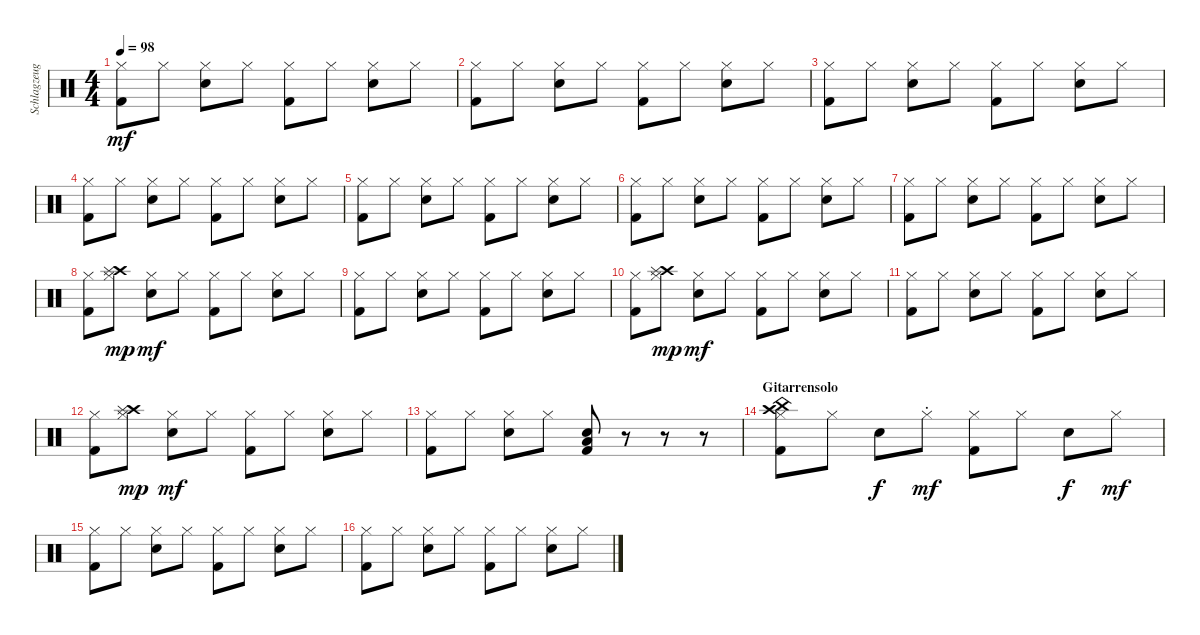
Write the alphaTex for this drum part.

\track ("Schlagzeug" "Schlagzeug") {instrument percussion}
\staff {score}
\articulation defaults
\ts (4 4)
\tempo 98
\clef neutral
\ks c
("Hi-Hat (closed)" "Kick (hit) 2").8{dy mf} "Hi-Hat (closed)".8 ("Hi-Hat (closed)" "Electric Snare (hit)").8 "Hi-Hat (closed)".8 ("Hi-Hat (closed)" "Kick (hit) 2").8 "Hi-Hat (closed)".8 ("Hi-Hat (closed)" "Electric Snare (hit)").8 "Hi-Hat (closed)".8 |
("Hi-Hat (closed)" "Kick (hit) 2").8 "Hi-Hat (closed)".8 ("Hi-Hat (closed)" "Electric Snare (hit)").8 "Hi-Hat (closed)".8 ("Hi-Hat (closed)" "Kick (hit) 2").8 "Hi-Hat (closed)".8 ("Hi-Hat (closed)" "Electric Snare (hit)").8 "Hi-Hat (closed)".8 |
("Hi-Hat (closed)" "Kick (hit) 2").8 "Hi-Hat (closed)".8 ("Hi-Hat (closed)" "Electric Snare (hit)").8 "Hi-Hat (closed)".8 ("Hi-Hat (closed)" "Kick (hit) 2").8 "Hi-Hat (closed)".8 ("Hi-Hat (closed)" "Electric Snare (hit)").8 "Hi-Hat (closed)".8 |
("Hi-Hat (closed)" "Kick (hit) 2").8 "Hi-Hat (closed)".8 ("Hi-Hat (closed)" "Electric Snare (hit)").8 "Hi-Hat (closed)".8 ("Hi-Hat (closed)" "Kick (hit) 2").8 "Hi-Hat (closed)".8 ("Hi-Hat (closed)" "Electric Snare (hit)").8 "Hi-Hat (closed)".8 |
("Hi-Hat (closed)" "Kick (hit) 2").8 "Hi-Hat (closed)".8 ("Hi-Hat (closed)" "Electric Snare (hit)").8 "Hi-Hat (closed)".8 ("Hi-Hat (closed)" "Kick (hit) 2").8 "Hi-Hat (closed)".8 ("Hi-Hat (closed)" "Electric Snare (hit)").8 "Hi-Hat (closed)".8 |
("Hi-Hat (closed)" "Kick (hit) 2").8 "Hi-Hat (closed)".8 ("Hi-Hat (closed)" "Electric Snare (hit)").8 "Hi-Hat (closed)".8 ("Hi-Hat (closed)" "Kick (hit) 2").8 "Hi-Hat (closed)".8 ("Hi-Hat (closed)" "Electric Snare (hit)").8 "Hi-Hat (closed)".8 |
("Hi-Hat (closed)" "Kick (hit) 2").8 "Hi-Hat (closed)".8 ("Hi-Hat (closed)" "Electric Snare (hit)").8 "Hi-Hat (closed)".8 ("Hi-Hat (closed)" "Kick (hit) 2").8 "Hi-Hat (closed)".8 ("Hi-Hat (closed)" "Electric Snare (hit)").8 "Hi-Hat (closed)".8 |
("Hi-Hat (closed)" "Kick (hit) 2").8 ("Crash high (hit)" "Hi-Hat (closed)" "Splash (hit)").8{dy mp} ("Hi-Hat (closed)" "Electric Snare (hit)").8{dy mf} "Hi-Hat (closed)".8 ("Hi-Hat (closed)" "Kick (hit) 2").8 "Hi-Hat (closed)".8 ("Hi-Hat (closed)" "Electric Snare (hit)").8 "Hi-Hat (closed)".8 |
("Hi-Hat (closed)" "Kick (hit) 2").8 "Hi-Hat (closed)".8 ("Hi-Hat (closed)" "Electric Snare (hit)").8 "Hi-Hat (closed)".8 ("Hi-Hat (closed)" "Kick (hit) 2").8 "Hi-Hat (closed)".8 ("Hi-Hat (closed)" "Electric Snare (hit)").8 "Hi-Hat (closed)".8 |
("Hi-Hat (closed)" "Kick (hit) 2").8 ("Crash high (hit)" "Hi-Hat (closed)" "Splash (hit)").8{dy mp} ("Hi-Hat (closed)" "Electric Snare (hit)").8{dy mf} "Hi-Hat (closed)".8 ("Hi-Hat (closed)" "Kick (hit) 2").8 "Hi-Hat (closed)".8 ("Hi-Hat (closed)" "Electric Snare (hit)").8 "Hi-Hat (closed)".8 |
("Hi-Hat (closed)" "Kick (hit) 2").8 "Hi-Hat (closed)".8 ("Hi-Hat (closed)" "Electric Snare (hit)").8 "Hi-Hat (closed)".8 ("Hi-Hat (closed)" "Kick (hit) 2").8 "Hi-Hat (closed)".8 ("Hi-Hat (closed)" "Electric Snare (hit)").8 "Hi-Hat (closed)".8 |
("Hi-Hat (closed)" "Kick (hit) 2").8 ("Crash high (hit)" "Hi-Hat (closed)" "Splash (hit)").8{dy mp} ("Hi-Hat (closed)" "Electric Snare (hit)").8{dy mf} "Hi-Hat (closed)".8 ("Hi-Hat (closed)" "Kick (hit) 2").8 "Hi-Hat (closed)".8 ("Hi-Hat (closed)" "Electric Snare (hit)").8 "Hi-Hat (closed)".8 |
("Hi-Hat (closed)" "Kick (hit) 2").8 "Hi-Hat (closed)".8 ("Hi-Hat (closed)" "Electric Snare (hit)").8 "Hi-Hat (closed)".8 ("Electric Snare (hit)" "Low Floor Tom (hit)" "Kick (hit) 2").8 r.8 r.8 r.8 |
\section ("" "Gitarrensolo")
("China (hit)" "Hi-Hat (closed)" "Crash high (hit)" "Kick (hit) 2").8 "Hi-Hat (closed)".8 "Electric Snare (hit)".8{dy f} "Hi-Hat (closed)"{st}.8{dy mf} ("Hi-Hat (closed)" "Kick (hit) 2").8 "Hi-Hat (closed)".8 "Electric Snare (hit)".8{dy f} "Hi-Hat (closed)".8{dy mf} |
("Hi-Hat (closed)" "Kick (hit) 2").8 "Hi-Hat (closed)".8 ("Hi-Hat (closed)" "Electric Snare (hit)").8 "Hi-Hat (closed)".8 ("Hi-Hat (closed)" "Kick (hit) 2").8 "Hi-Hat (closed)".8 ("Hi-Hat (closed)" "Electric Snare (hit)").8 "Hi-Hat (closed)".8 |
("Hi-Hat (closed)" "Kick (hit) 2").8 "Hi-Hat (closed)".8 ("Hi-Hat (closed)" "Electric Snare (hit)").8 "Hi-Hat (closed)".8 ("Hi-Hat (closed)" "Kick (hit) 2").8 "Hi-Hat (closed)".8 ("Hi-Hat (closed)" "Electric Snare (hit)").8 "Hi-Hat (closed)".8
